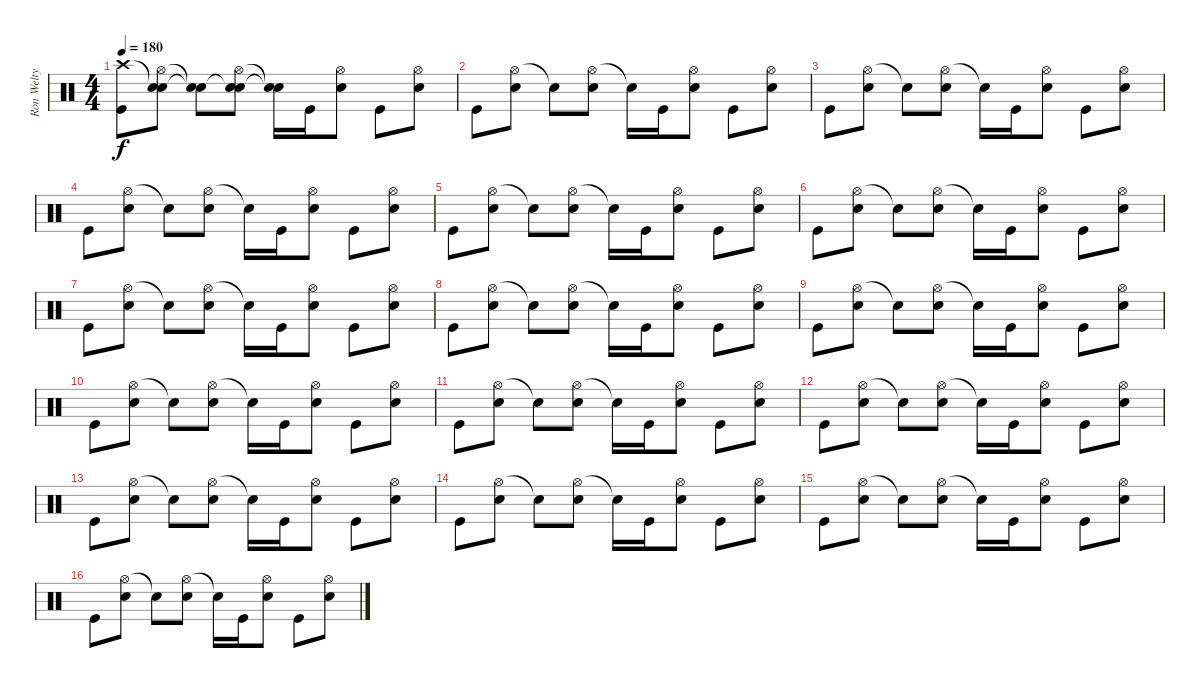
\track ("Ron Welty" "Ron Welty") {instrument percussion}
\staff {score}
\articulation defaults
\ts (4 4)
\tempo 180
\clef neutral
\ks c
("Crash high (hit)" "Kick (hit)").8{dy f} ("Snare (hit)"{t} "Hi-Hat (open)" "Snare (hit) 2").8 ("Snare (hit)"{t} "Snare (hit)"{t}).8 ("Snare (hit)"{t} "Hi-Hat (open)" "Snare (hit) 2").8 ("Snare (hit)"{t} "Snare (hit)"{t}).16 "Kick (hit)".16 ("Hi-Hat (open)" "Snare (hit) 2").8 "Kick (hit)".8 ("Hi-Hat (open)" "Snare (hit) 2").8 |
"Kick (hit)".8 ("Hi-Hat (open)" "Snare (hit) 2").8 "Snare (hit)"{t}.8 ("Hi-Hat (open)" "Snare (hit) 2").8 "Snare (hit)"{t}.16 "Kick (hit)".16 ("Hi-Hat (open)" "Snare (hit) 2").8 "Kick (hit)".8 ("Hi-Hat (open)" "Snare (hit) 2").8 |
"Kick (hit)".8 ("Hi-Hat (open)" "Snare (hit) 2").8 "Snare (hit)"{t}.8 ("Hi-Hat (open)" "Snare (hit) 2").8 "Snare (hit)"{t}.16 "Kick (hit)".16 ("Hi-Hat (open)" "Snare (hit) 2").8 "Kick (hit)".8 ("Hi-Hat (open)" "Snare (hit) 2").8 |
"Kick (hit)".8 ("Hi-Hat (open)" "Snare (hit) 2").8 "Snare (hit)"{t}.8 ("Hi-Hat (open)" "Snare (hit) 2").8 "Snare (hit)"{t}.16 "Kick (hit)".16 ("Hi-Hat (open)" "Snare (hit) 2").8 "Kick (hit)".8 ("Hi-Hat (open)" "Snare (hit) 2").8 |
"Kick (hit)".8 ("Hi-Hat (open)" "Snare (hit) 2").8 "Snare (hit)"{t}.8 ("Hi-Hat (open)" "Snare (hit) 2").8 "Snare (hit)"{t}.16 "Kick (hit)".16 ("Hi-Hat (open)" "Snare (hit) 2").8 "Kick (hit)".8 ("Hi-Hat (open)" "Snare (hit) 2").8 |
"Kick (hit)".8 ("Hi-Hat (open)" "Snare (hit) 2").8 "Snare (hit)"{t}.8 ("Hi-Hat (open)" "Snare (hit) 2").8 "Snare (hit)"{t}.16 "Kick (hit)".16 ("Hi-Hat (open)" "Snare (hit) 2").8 "Kick (hit)".8 ("Hi-Hat (open)" "Snare (hit) 2").8 |
"Kick (hit)".8 ("Hi-Hat (open)" "Snare (hit) 2").8 "Snare (hit)"{t}.8 ("Hi-Hat (open)" "Snare (hit) 2").8 "Snare (hit)"{t}.16 "Kick (hit)".16 ("Hi-Hat (open)" "Snare (hit) 2").8 "Kick (hit)".8 ("Hi-Hat (open)" "Snare (hit) 2").8 |
"Kick (hit)".8 ("Hi-Hat (open)" "Snare (hit) 2").8 "Snare (hit)"{t}.8 ("Hi-Hat (open)" "Snare (hit) 2").8 "Snare (hit)"{t}.16 "Kick (hit)".16 ("Hi-Hat (open)" "Snare (hit) 2").8 "Kick (hit)".8 ("Hi-Hat (open)" "Snare (hit) 2").8 |
"Kick (hit)".8 ("Hi-Hat (open)" "Snare (hit) 2").8 "Snare (hit)"{t}.8 ("Hi-Hat (open)" "Snare (hit) 2").8 "Snare (hit)"{t}.16 "Kick (hit)".16 ("Hi-Hat (open)" "Snare (hit) 2").8 "Kick (hit)".8 ("Hi-Hat (open)" "Snare (hit) 2").8 |
"Kick (hit)".8 ("Hi-Hat (open)" "Snare (hit) 2").8 "Snare (hit)"{t}.8 ("Hi-Hat (open)" "Snare (hit) 2").8 "Snare (hit)"{t}.16 "Kick (hit)".16 ("Hi-Hat (open)" "Snare (hit) 2").8 "Kick (hit)".8 ("Hi-Hat (open)" "Snare (hit) 2").8 |
"Kick (hit)".8 ("Hi-Hat (open)" "Snare (hit) 2").8 "Snare (hit)"{t}.8 ("Hi-Hat (open)" "Snare (hit) 2").8 "Snare (hit)"{t}.16 "Kick (hit)".16 ("Hi-Hat (open)" "Snare (hit) 2").8 "Kick (hit)".8 ("Hi-Hat (open)" "Snare (hit) 2").8 |
"Kick (hit)".8 ("Hi-Hat (open)" "Snare (hit) 2").8 "Snare (hit)"{t}.8 ("Hi-Hat (open)" "Snare (hit) 2").8 "Snare (hit)"{t}.16 "Kick (hit)".16 ("Hi-Hat (open)" "Snare (hit) 2").8 "Kick (hit)".8 ("Hi-Hat (open)" "Snare (hit) 2").8 |
"Kick (hit)".8 ("Hi-Hat (open)" "Snare (hit) 2").8 "Snare (hit)"{t}.8 ("Hi-Hat (open)" "Snare (hit) 2").8 "Snare (hit)"{t}.16 "Kick (hit)".16 ("Hi-Hat (open)" "Snare (hit) 2").8 "Kick (hit)".8 ("Hi-Hat (open)" "Snare (hit) 2").8 |
"Kick (hit)".8 ("Hi-Hat (open)" "Snare (hit) 2").8 "Snare (hit)"{t}.8 ("Hi-Hat (open)" "Snare (hit) 2").8 "Snare (hit)"{t}.16 "Kick (hit)".16 ("Hi-Hat (open)" "Snare (hit) 2").8 "Kick (hit)".8 ("Hi-Hat (open)" "Snare (hit) 2").8 |
"Kick (hit)".8 ("Hi-Hat (open)" "Snare (hit) 2").8 "Snare (hit)"{t}.8 ("Hi-Hat (open)" "Snare (hit) 2").8 "Snare (hit)"{t}.16 "Kick (hit)".16 ("Hi-Hat (open)" "Snare (hit) 2").8 "Kick (hit)".8 ("Hi-Hat (open)" "Snare (hit) 2").8 |
"Kick (hit)".8 ("Hi-Hat (open)" "Snare (hit) 2").8 "Snare (hit)"{t}.8 ("Hi-Hat (open)" "Snare (hit) 2").8 "Snare (hit)"{t}.16 "Kick (hit)".16 ("Hi-Hat (open)" "Snare (hit) 2").8 "Kick (hit)".8 ("Hi-Hat (open)" "Snare (hit) 2").8
